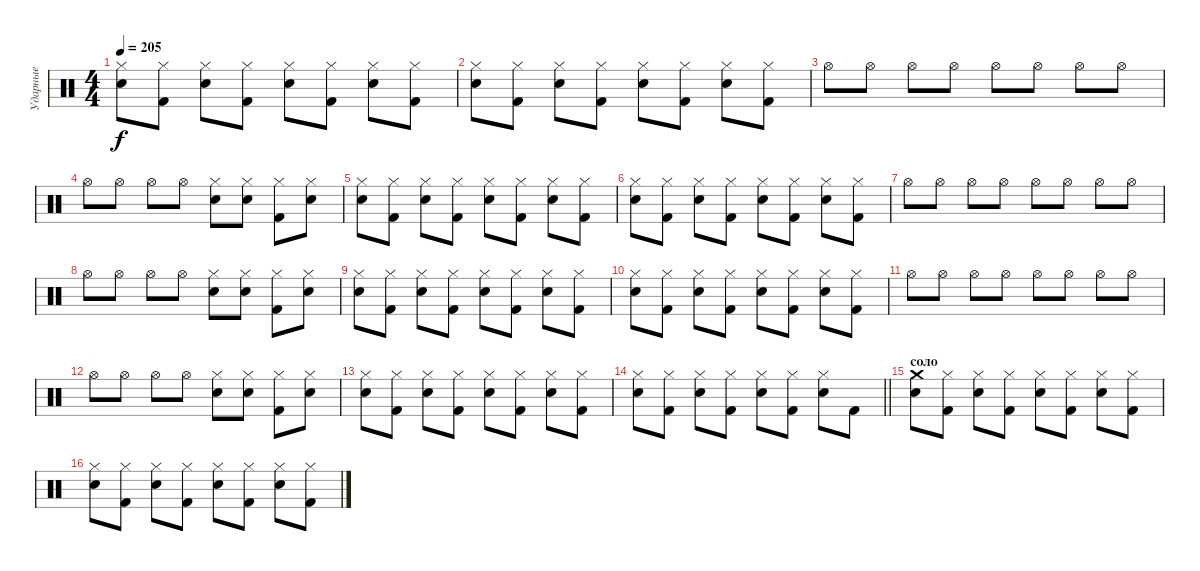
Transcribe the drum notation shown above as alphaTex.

\track ("Ударные" "Ударные") {instrument percussion}
\staff {score}
\articulation defaults
\ts (4 4)
\tempo 205
\clef neutral
\ks c
("Electric Snare (hit)" "Hi-Hat (closed)").8{dy f} ("Kick (hit) 2" "Hi-Hat (closed)").8 ("Electric Snare (hit)" "Hi-Hat (closed)").8 ("Kick (hit) 2" "Hi-Hat (closed)").8 ("Electric Snare (hit)" "Hi-Hat (closed)").8 ("Kick (hit) 2" "Hi-Hat (closed)").8 ("Electric Snare (hit)" "Hi-Hat (closed)").8 ("Kick (hit) 2" "Hi-Hat (closed)").8 |
("Electric Snare (hit)" "Hi-Hat (closed)").8 ("Kick (hit) 2" "Hi-Hat (closed)").8 ("Electric Snare (hit)" "Hi-Hat (closed)").8 ("Kick (hit) 2" "Hi-Hat (closed)").8 ("Electric Snare (hit)" "Hi-Hat (closed)").8 ("Kick (hit) 2" "Hi-Hat (closed)").8 ("Electric Snare (hit)" "Hi-Hat (closed)").8 ("Kick (hit) 2" "Hi-Hat (closed)").8 |
"Hi-Hat (open)".8 "Hi-Hat (open)".8 "Hi-Hat (open)".8 "Hi-Hat (open)".8 "Hi-Hat (open)".8 "Hi-Hat (open)".8 "Hi-Hat (open)".8 "Hi-Hat (open)".8 |
"Hi-Hat (open)".8 "Hi-Hat (open)".8 "Hi-Hat (open)".8 "Hi-Hat (open)".8 ("Snare (hit) 2" "Hi-Hat (closed)").8 ("Electric Snare (hit)" "Hi-Hat (closed)").8 ("Kick (hit) 2" "Hi-Hat (closed)").8 ("Electric Snare (hit)" "Hi-Hat (closed)").8 |
("Electric Snare (hit)" "Hi-Hat (closed)").8 ("Kick (hit) 2" "Hi-Hat (closed)").8 ("Electric Snare (hit)" "Hi-Hat (closed)").8 ("Kick (hit) 2" "Hi-Hat (closed)").8 ("Electric Snare (hit)" "Hi-Hat (closed)").8 ("Kick (hit) 2" "Hi-Hat (closed)").8 ("Electric Snare (hit)" "Hi-Hat (closed)").8 ("Kick (hit) 2" "Hi-Hat (closed)").8 |
("Electric Snare (hit)" "Hi-Hat (closed)").8 ("Kick (hit) 2" "Hi-Hat (closed)").8 ("Electric Snare (hit)" "Hi-Hat (closed)").8 ("Kick (hit) 2" "Hi-Hat (closed)").8 ("Electric Snare (hit)" "Hi-Hat (closed)").8 ("Kick (hit) 2" "Hi-Hat (closed)").8 ("Electric Snare (hit)" "Hi-Hat (closed)").8 ("Kick (hit) 2" "Hi-Hat (closed)").8 |
"Hi-Hat (open)".8 "Hi-Hat (open)".8 "Hi-Hat (open)".8 "Hi-Hat (open)".8 "Hi-Hat (open)".8 "Hi-Hat (open)".8 "Hi-Hat (open)".8 "Hi-Hat (open)".8 |
"Hi-Hat (open)".8 "Hi-Hat (open)".8 "Hi-Hat (open)".8 "Hi-Hat (open)".8 ("Snare (hit) 2" "Hi-Hat (closed)").8 ("Electric Snare (hit)" "Hi-Hat (closed)").8 ("Kick (hit) 2" "Hi-Hat (closed)").8 ("Electric Snare (hit)" "Hi-Hat (closed)").8 |
("Electric Snare (hit)" "Hi-Hat (closed)").8 ("Kick (hit) 2" "Hi-Hat (closed)").8 ("Electric Snare (hit)" "Hi-Hat (closed)").8 ("Kick (hit) 2" "Hi-Hat (closed)").8 ("Electric Snare (hit)" "Hi-Hat (closed)").8 ("Kick (hit) 2" "Hi-Hat (closed)").8 ("Electric Snare (hit)" "Hi-Hat (closed)").8 ("Kick (hit) 2" "Hi-Hat (closed)").8 |
("Electric Snare (hit)" "Hi-Hat (closed)").8 ("Kick (hit) 2" "Hi-Hat (closed)").8 ("Electric Snare (hit)" "Hi-Hat (closed)").8 ("Kick (hit) 2" "Hi-Hat (closed)").8 ("Electric Snare (hit)" "Hi-Hat (closed)").8 ("Kick (hit) 2" "Hi-Hat (closed)").8 ("Electric Snare (hit)" "Hi-Hat (closed)").8 ("Kick (hit) 2" "Hi-Hat (closed)").8 |
"Hi-Hat (open)".8 "Hi-Hat (open)".8 "Hi-Hat (open)".8 "Hi-Hat (open)".8 "Hi-Hat (open)".8 "Hi-Hat (open)".8 "Hi-Hat (open)".8 "Hi-Hat (open)".8 |
"Hi-Hat (open)".8 "Hi-Hat (open)".8 "Hi-Hat (open)".8 "Hi-Hat (open)".8 ("Snare (hit) 2" "Hi-Hat (closed)").8 ("Electric Snare (hit)" "Hi-Hat (closed)").8 ("Kick (hit) 2" "Hi-Hat (closed)").8 ("Electric Snare (hit)" "Hi-Hat (closed)").8 |
("Electric Snare (hit)" "Hi-Hat (closed)").8 ("Kick (hit) 2" "Hi-Hat (closed)").8 ("Electric Snare (hit)" "Hi-Hat (closed)").8 ("Kick (hit) 2" "Hi-Hat (closed)").8 ("Electric Snare (hit)" "Hi-Hat (closed)").8 ("Kick (hit) 2" "Hi-Hat (closed)").8 ("Electric Snare (hit)" "Hi-Hat (closed)").8 ("Kick (hit) 2" "Hi-Hat (closed)").8 |
\barLineRight lightlight
("Electric Snare (hit)" "Hi-Hat (closed)").8 ("Kick (hit) 2" "Hi-Hat (closed)").8 ("Electric Snare (hit)" "Hi-Hat (closed)").8 ("Kick (hit) 2" "Hi-Hat (closed)").8 ("Electric Snare (hit)" "Hi-Hat (closed)").8 ("Kick (hit) 2" "Hi-Hat (closed)").8 ("Electric Snare (hit)" "Hi-Hat (closed)").8 "Kick (hit) 2".8 |
\section ("" "соло")
("Electric Snare (hit)" "Crash medium (hit)").8 ("Kick (hit) 2" "Hi-Hat (closed)").8 ("Electric Snare (hit)" "Hi-Hat (closed)").8 ("Kick (hit) 2" "Hi-Hat (closed)").8 ("Electric Snare (hit)" "Hi-Hat (closed)").8 ("Kick (hit) 2" "Hi-Hat (closed)").8 ("Electric Snare (hit)" "Hi-Hat (closed)").8 ("Kick (hit) 2" "Hi-Hat (closed)").8 |
("Electric Snare (hit)" "Hi-Hat (closed)").8 ("Kick (hit) 2" "Hi-Hat (closed)").8 ("Electric Snare (hit)" "Hi-Hat (closed)").8 ("Kick (hit) 2" "Hi-Hat (closed)").8 ("Electric Snare (hit)" "Hi-Hat (closed)").8 ("Kick (hit) 2" "Hi-Hat (closed)").8 ("Electric Snare (hit)" "Hi-Hat (closed)").8 ("Kick (hit) 2" "Hi-Hat (closed)").8
